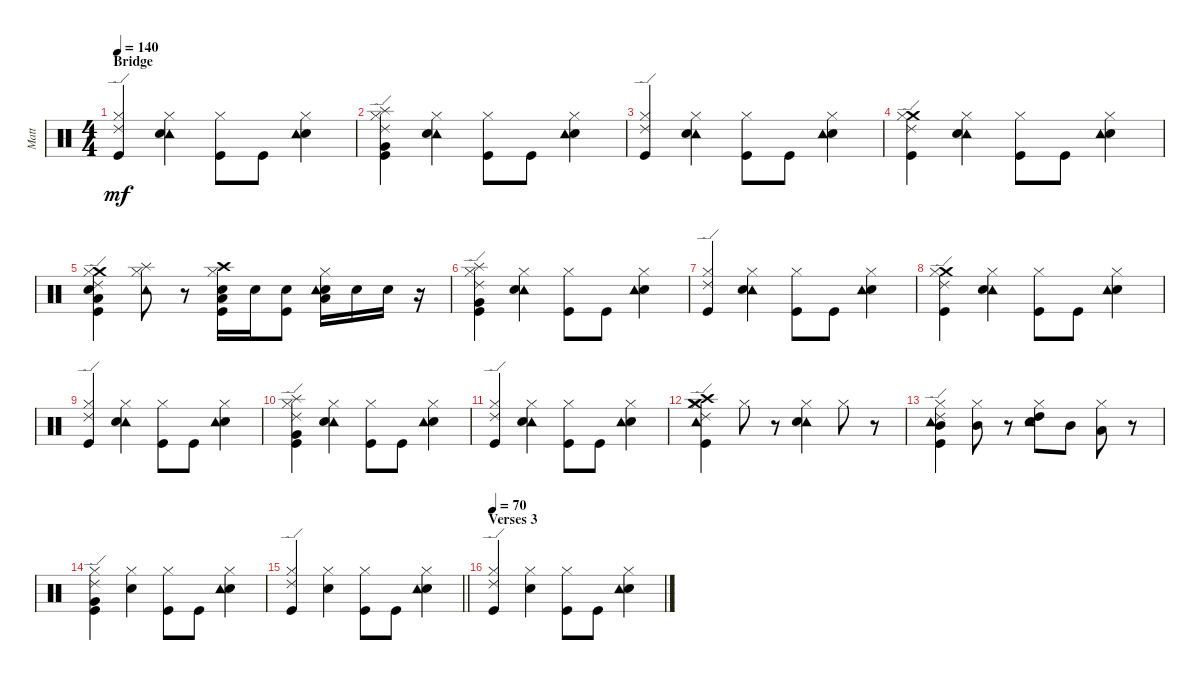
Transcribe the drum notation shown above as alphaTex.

\track ("Matt" "Matt") {instrument percussion}
\staff {score}
\articulation defaults
\ts (4 4)
\section ("" "Bridge")
\tempo 140
\clef neutral
\ks c
("Ride (edge) 2" "Hi-Hat (closed)" "Kick (hit)").4{dy mf} ("Tambourine (hit)" "Hi-Hat (closed)" "Electric Snare (hit)").4 ("Hi-Hat (closed)" "Kick (hit)").8 "Kick (hit)".8 ("Electric Snare (hit)" "Tambourine (hit)" "Hi-Hat (closed)").4 |
("Splash (hit)" "Very Low Tom (hit)" "Ride (edge) 2" "Hi-Hat (closed)" "Kick (hit)").4 ("Tambourine (hit)" "Hi-Hat (closed)" "Electric Snare (hit)").4 ("Hi-Hat (closed)" "Kick (hit)").8 "Kick (hit)".8 ("Electric Snare (hit)" "Tambourine (hit)" "Hi-Hat (closed)").4 |
("Ride (edge) 2" "Hi-Hat (closed)" "Kick (hit)").4 ("Tambourine (hit)" "Hi-Hat (closed)" "Electric Snare (hit)").4 ("Hi-Hat (closed)" "Kick (hit)").8 "Kick (hit)".8 ("Electric Snare (hit)" "Tambourine (hit)" "Hi-Hat (closed)").4 |
("Crash medium (hit)" "Ride (edge) 2" "Hi-Hat (closed)" "Kick (hit)").4 ("Tambourine (hit)" "Hi-Hat (closed)" "Electric Snare (hit)").4 ("Hi-Hat (closed)" "Kick (hit)").8 "Kick (hit)".8 ("Electric Snare (hit)" "Tambourine (hit)" "Hi-Hat (closed)").4 |
("Crash medium (hit)" "Low Tom (hit)" "Electric Snare (hit)" "Ride (edge) 2" "Hi-Hat (closed)" "Kick (hit)").4 ("Splash (hit)" "Tambourine (hit)" "Hi-Hat (closed)").8 r.8 ("Crash high (hit)" "Low Tom (hit)" "Electric Snare (hit)" "Hi-Hat (closed)" "Kick (hit)").16 "Electric Snare (hit)".16 ("Electric Snare (hit)" "Kick (hit)").8 ("Low Tom (hit)" "Electric Snare (hit)" "Tambourine (hit)" "Hi-Hat (closed)").16 "Electric Snare (hit)".16 "Electric Snare (hit)".16 r.16 |
("Splash (hit)" "Very Low Tom (hit)" "Ride (edge) 2" "Hi-Hat (closed)" "Kick (hit)").4 ("Tambourine (hit)" "Hi-Hat (closed)" "Electric Snare (hit)").4 ("Hi-Hat (closed)" "Kick (hit)").8 "Kick (hit)".8 ("Electric Snare (hit)" "Tambourine (hit)" "Hi-Hat (closed)").4 |
("Ride (edge) 2" "Hi-Hat (closed)" "Kick (hit)").4 ("Tambourine (hit)" "Hi-Hat (closed)" "Electric Snare (hit)").4 ("Hi-Hat (closed)" "Kick (hit)").8 "Kick (hit)".8 ("Electric Snare (hit)" "Tambourine (hit)" "Hi-Hat (closed)").4 |
("Crash medium (hit)" "Ride (edge) 2" "Hi-Hat (closed)" "Kick (hit)").4 ("Tambourine (hit)" "Hi-Hat (closed)" "Electric Snare (hit)").4 ("Hi-Hat (closed)" "Kick (hit)").8 "Kick (hit)".8 ("Electric Snare (hit)" "Tambourine (hit)" "Hi-Hat (closed)").4 |
("Ride (edge) 2" "Hi-Hat (closed)" "Kick (hit)").4 ("Tambourine (hit)" "Hi-Hat (closed)" "Electric Snare (hit)").4 ("Hi-Hat (closed)" "Kick (hit)").8 "Kick (hit)".8 ("Electric Snare (hit)" "Tambourine (hit)" "Hi-Hat (closed)").4 |
("Splash (hit)" "Very Low Tom (hit)" "Ride (edge) 2" "Hi-Hat (closed)" "Kick (hit)").4 ("Tambourine (hit)" "Hi-Hat (closed)" "Electric Snare (hit)").4 ("Hi-Hat (closed)" "Kick (hit)").8 "Kick (hit)".8 ("Electric Snare (hit)" "Tambourine (hit)" "Hi-Hat (closed)").4 |
("Ride (edge) 2" "Hi-Hat (closed)" "Kick (hit)").4 ("Tambourine (hit)" "Hi-Hat (closed)" "Electric Snare (hit)").4 ("Hi-Hat (closed)" "Kick (hit)").8 "Kick (hit)".8 ("Electric Snare (hit)" "Tambourine (hit)" "Hi-Hat (closed)").4 |
("Crash high (hit)" "Crash medium (hit)" "Tambourine (hit)" "Ride (edge) 2" "Hi-Hat (closed)" "Kick (hit)").4 "Hi-Hat (closed)".8 r.8 ("Tambourine (hit)" "Electric Snare (hit)" "Hi-Hat (closed)").4 "Hi-Hat (closed)".8 r.8 |
("Tambourine (hit)" "Mid Tom (hit)" "Ride (edge) 2" "Hi-Hat (closed)" "Kick (hit)").4 ("Hi-Hat (closed)" "Mid Tom (hit)").8 r.8 ("Tambourine (hit)" "High Tom (hit)" "Electric Snare (hit)" "Hi-Hat (closed)").8 "Mid Tom (hit)".8 ("Hi-Hat (closed)" "Low Tom (hit)").8 r.8 |
("Very Low Tom (hit)" "Ride (edge) 2" "Hi-Hat (closed)" "Kick (hit)").4 ("Hi-Hat (closed)" "Electric Snare (hit)").4 ("Hi-Hat (closed)" "Kick (hit)").8 "Kick (hit)".8 ("Electric Snare (hit)" "Tambourine (hit)" "Hi-Hat (closed)").4 |
\barLineRight lightlight
("Ride (edge) 2" "Hi-Hat (closed)" "Kick (hit)").4 ("Hi-Hat (closed)" "Electric Snare (hit)").4 ("Hi-Hat (closed)" "Kick (hit)").8 "Kick (hit)".8 ("Electric Snare (hit)" "Tambourine (hit)" "Hi-Hat (closed)").4 |
\section ("" "Verses 3")
\tempo 70
("Ride (edge) 2" "Hi-Hat (closed)" "Kick (hit)").4 ("Hi-Hat (closed)" "Electric Snare (hit)").4 ("Hi-Hat (closed)" "Kick (hit)").8 "Kick (hit)".8 ("Electric Snare (hit)" "Tambourine (hit)" "Hi-Hat (closed)").4
